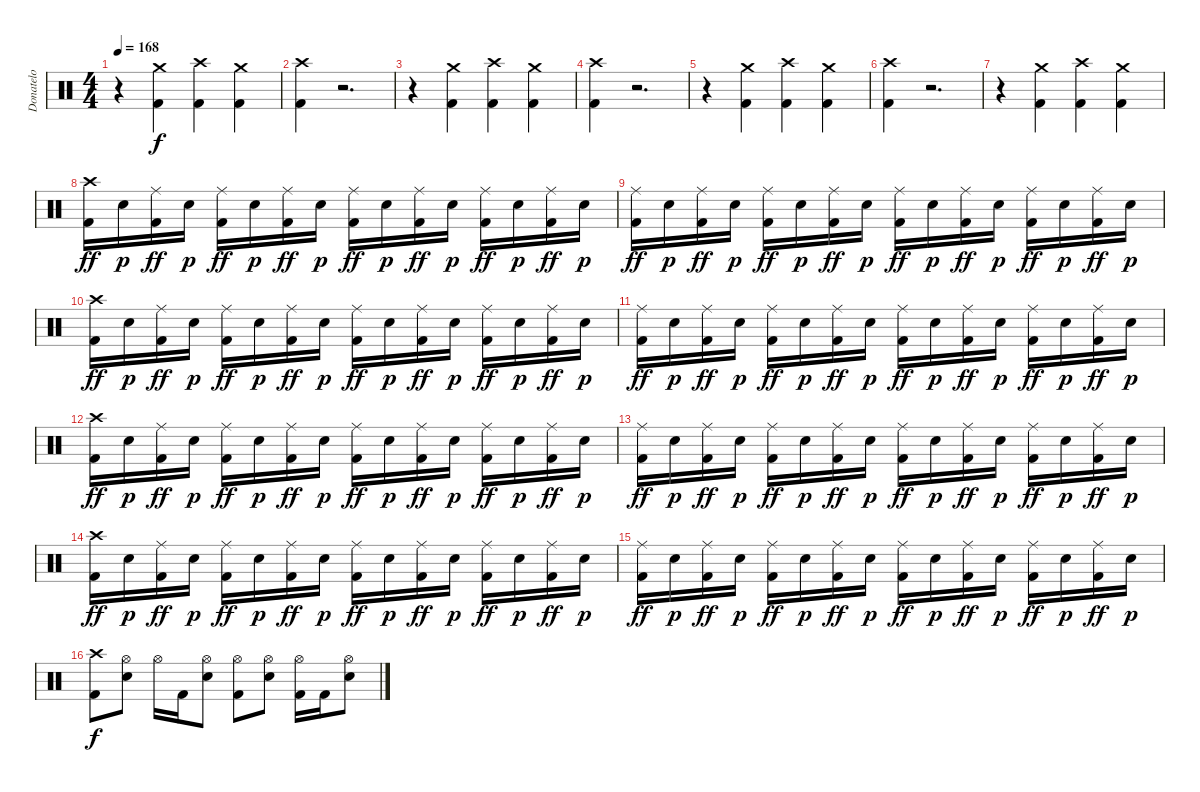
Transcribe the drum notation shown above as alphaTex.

\track ("Donatelo" "Donatelo") {instrument percussion}
\staff {score}
\articulation defaults
\ts (4 4)
\tempo 168
\clef neutral
\ks c
r.4{dy f} ("Kick (hit) 2" "Crash medium (hit)").4 ("Kick (hit) 2" "Crash high (hit)").4 ("Kick (hit) 2" "Crash medium (hit)").4 |
("Kick (hit) 2" "Crash high (hit)").4 r.2{d} |
r.4 ("Kick (hit) 2" "Crash medium (hit)").4 ("Kick (hit) 2" "Crash high (hit)").4 ("Kick (hit) 2" "Crash medium (hit)").4 |
("Kick (hit) 2" "Crash high (hit)").4 r.2{d} |
r.4 ("Kick (hit) 2" "Crash medium (hit)").4 ("Kick (hit) 2" "Crash high (hit)").4 ("Kick (hit) 2" "Crash medium (hit)").4 |
("Kick (hit) 2" "Crash high (hit)").4 r.2{d} |
r.4 ("Kick (hit) 2" "Crash medium (hit)").4 ("Kick (hit) 2" "Crash high (hit)").4 ("Kick (hit) 2" "Crash medium (hit)").4 |
("Kick (hit) 2" "Crash high (hit)").16{dy ff} "Electric Snare (hit)".16{dy p} ("Kick (hit) 2" "Ride (middle)").16{dy ff} "Electric Snare (hit)".16{dy p} ("Kick (hit) 2" "Ride (middle)").16{dy ff} "Electric Snare (hit)".16{dy p} ("Kick (hit) 2" "Ride (middle)").16{dy ff} "Electric Snare (hit)".16{dy p} ("Kick (hit) 2" "Ride (middle)").16{dy ff} "Electric Snare (hit)".16{dy p} ("Kick (hit) 2" "Ride (middle)").16{dy ff} "Electric Snare (hit)".16{dy p} ("Kick (hit) 2" "Ride (middle)").16{dy ff} "Electric Snare (hit)".16{dy p} ("Kick (hit) 2" "Ride (middle)").16{dy ff} "Electric Snare (hit)".16{dy p} |
("Kick (hit) 2" "Ride (middle)").16{dy ff} "Electric Snare (hit)".16{dy p} ("Kick (hit) 2" "Ride (middle)").16{dy ff} "Electric Snare (hit)".16{dy p} ("Kick (hit) 2" "Ride (middle)").16{dy ff} "Electric Snare (hit)".16{dy p} ("Kick (hit) 2" "Ride (middle)").16{dy ff} "Electric Snare (hit)".16{dy p} ("Kick (hit) 2" "Ride (middle)").16{dy ff} "Electric Snare (hit)".16{dy p} ("Kick (hit) 2" "Ride (middle)").16{dy ff} "Electric Snare (hit)".16{dy p} ("Kick (hit) 2" "Ride (middle)").16{dy ff} "Electric Snare (hit)".16{dy p} ("Kick (hit) 2" "Ride (middle)").16{dy ff} "Electric Snare (hit)".16{dy p} |
("Kick (hit) 2" "Crash high (hit)").16{dy ff} "Electric Snare (hit)".16{dy p} ("Kick (hit) 2" "Ride (middle)").16{dy ff} "Electric Snare (hit)".16{dy p} ("Kick (hit) 2" "Ride (middle)").16{dy ff} "Electric Snare (hit)".16{dy p} ("Kick (hit) 2" "Ride (middle)").16{dy ff} "Electric Snare (hit)".16{dy p} ("Kick (hit) 2" "Ride (middle)").16{dy ff} "Electric Snare (hit)".16{dy p} ("Kick (hit) 2" "Ride (middle)").16{dy ff} "Electric Snare (hit)".16{dy p} ("Kick (hit) 2" "Ride (middle)").16{dy ff} "Electric Snare (hit)".16{dy p} ("Kick (hit) 2" "Ride (middle)").16{dy ff} "Electric Snare (hit)".16{dy p} |
("Kick (hit) 2" "Ride (middle)").16{dy ff} "Electric Snare (hit)".16{dy p} ("Kick (hit) 2" "Ride (middle)").16{dy ff} "Electric Snare (hit)".16{dy p} ("Kick (hit) 2" "Ride (middle)").16{dy ff} "Electric Snare (hit)".16{dy p} ("Kick (hit) 2" "Ride (middle)").16{dy ff} "Electric Snare (hit)".16{dy p} ("Kick (hit) 2" "Ride (middle)").16{dy ff} "Electric Snare (hit)".16{dy p} ("Kick (hit) 2" "Ride (middle)").16{dy ff} "Electric Snare (hit)".16{dy p} ("Kick (hit) 2" "Ride (middle)").16{dy ff} "Electric Snare (hit)".16{dy p} ("Kick (hit) 2" "Ride (middle)").16{dy ff} "Electric Snare (hit)".16{dy p} |
("Kick (hit) 2" "Crash high (hit)").16{dy ff} "Electric Snare (hit)".16{dy p} ("Kick (hit) 2" "Ride (middle)").16{dy ff} "Electric Snare (hit)".16{dy p} ("Kick (hit) 2" "Ride (middle)").16{dy ff} "Electric Snare (hit)".16{dy p} ("Kick (hit) 2" "Ride (middle)").16{dy ff} "Electric Snare (hit)".16{dy p} ("Kick (hit) 2" "Ride (middle)").16{dy ff} "Electric Snare (hit)".16{dy p} ("Kick (hit) 2" "Ride (middle)").16{dy ff} "Electric Snare (hit)".16{dy p} ("Kick (hit) 2" "Ride (middle)").16{dy ff} "Electric Snare (hit)".16{dy p} ("Kick (hit) 2" "Ride (middle)").16{dy ff} "Electric Snare (hit)".16{dy p} |
("Kick (hit) 2" "Ride (middle)").16{dy ff} "Electric Snare (hit)".16{dy p} ("Kick (hit) 2" "Ride (middle)").16{dy ff} "Electric Snare (hit)".16{dy p} ("Kick (hit) 2" "Ride (middle)").16{dy ff} "Electric Snare (hit)".16{dy p} ("Kick (hit) 2" "Ride (middle)").16{dy ff} "Electric Snare (hit)".16{dy p} ("Kick (hit) 2" "Ride (middle)").16{dy ff} "Electric Snare (hit)".16{dy p} ("Kick (hit) 2" "Ride (middle)").16{dy ff} "Electric Snare (hit)".16{dy p} ("Kick (hit) 2" "Ride (middle)").16{dy ff} "Electric Snare (hit)".16{dy p} ("Kick (hit) 2" "Ride (middle)").16{dy ff} "Electric Snare (hit)".16{dy p} |
("Kick (hit) 2" "Crash high (hit)").16{dy ff} "Electric Snare (hit)".16{dy p} ("Kick (hit) 2" "Ride (middle)").16{dy ff} "Electric Snare (hit)".16{dy p} ("Kick (hit) 2" "Ride (middle)").16{dy ff} "Electric Snare (hit)".16{dy p} ("Kick (hit) 2" "Ride (middle)").16{dy ff} "Electric Snare (hit)".16{dy p} ("Kick (hit) 2" "Ride (middle)").16{dy ff} "Electric Snare (hit)".16{dy p} ("Kick (hit) 2" "Ride (middle)").16{dy ff} "Electric Snare (hit)".16{dy p} ("Kick (hit) 2" "Ride (middle)").16{dy ff} "Electric Snare (hit)".16{dy p} ("Kick (hit) 2" "Ride (middle)").16{dy ff} "Electric Snare (hit)".16{dy p} |
("Kick (hit) 2" "Ride (middle)").16{dy ff} "Electric Snare (hit)".16{dy p} ("Kick (hit) 2" "Ride (middle)").16{dy ff} "Electric Snare (hit)".16{dy p} ("Kick (hit) 2" "Ride (middle)").16{dy ff} "Electric Snare (hit)".16{dy p} ("Kick (hit) 2" "Ride (middle)").16{dy ff} "Electric Snare (hit)".16{dy p} ("Kick (hit) 2" "Ride (middle)").16{dy ff} "Electric Snare (hit)".16{dy p} ("Kick (hit) 2" "Ride (middle)").16{dy ff} "Electric Snare (hit)".16{dy p} ("Kick (hit) 2" "Ride (middle)").16{dy ff} "Electric Snare (hit)".16{dy p} ("Kick (hit) 2" "Ride (middle)").16{dy ff} "Electric Snare (hit)".16{dy p} |
("Kick (hit) 2" "Crash high (hit)").8{dy f} ("Electric Snare (hit)" "Hi-Hat (open)").8 "Hi-Hat (open)".16 "Kick (hit) 2".16 ("Electric Snare (hit)" "Hi-Hat (open)").8 ("Kick (hit) 2" "Hi-Hat (open)").8 ("Electric Snare (hit)" "Hi-Hat (open)").8 ("Kick (hit) 2" "Hi-Hat (open)").16 "Kick (hit) 2".16 ("Electric Snare (hit)" "Hi-Hat (open)").8
